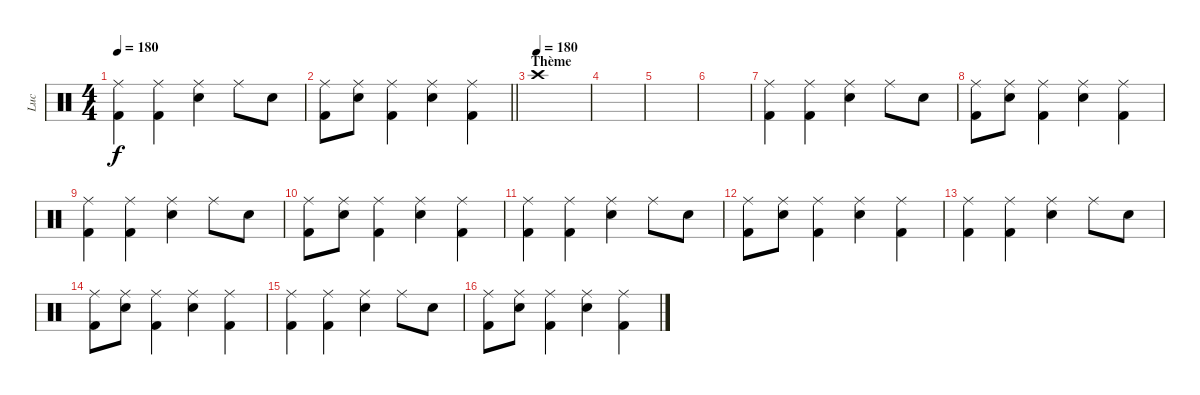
\track ("Luc" "Luc") {instrument percussion}
\staff {score}
\articulation defaults
\ts (4 4)
\tempo 180
\clef neutral
\ks c
("Ride (middle)" "Kick (hit) 2").4{dy f} ("Ride (middle)" "Kick (hit) 2").4 ("Ride (middle)" "Snare (hit) 2").4 "Ride (middle)".8 "Snare (hit) 2".8 |
\barLineRight lightlight
("Ride (middle)" "Kick (hit) 2").8 ("Ride (middle)" "Snare (hit) 2").8 ("Ride (middle)" "Kick (hit) 2").4 ("Ride (middle)" "Snare (hit) 2").4 ("Ride (middle)" "Kick (hit) 2").4 |
\section ("" "Thème")
\tempo (180)
"Crash high (hit)".1 |
|
|
|
("Ride (middle)" "Kick (hit) 2").4 ("Ride (middle)" "Kick (hit) 2").4 ("Ride (middle)" "Snare (hit) 2").4 "Ride (middle)".8 "Snare (hit) 2".8 |
("Ride (middle)" "Kick (hit) 2").8 ("Ride (middle)" "Snare (hit) 2").8 ("Ride (middle)" "Kick (hit) 2").4 ("Ride (middle)" "Snare (hit) 2").4 ("Ride (middle)" "Kick (hit) 2").4 |
("Ride (middle)" "Kick (hit) 2").4 ("Ride (middle)" "Kick (hit) 2").4 ("Ride (middle)" "Snare (hit) 2").4 "Ride (middle)".8 "Snare (hit) 2".8 |
("Ride (middle)" "Kick (hit) 2").8 ("Ride (middle)" "Snare (hit) 2").8 ("Ride (middle)" "Kick (hit) 2").4 ("Ride (middle)" "Snare (hit) 2").4 ("Ride (middle)" "Kick (hit) 2").4 |
("Ride (middle)" "Kick (hit) 2").4 ("Ride (middle)" "Kick (hit) 2").4 ("Ride (middle)" "Snare (hit) 2").4 "Ride (middle)".8 "Snare (hit) 2".8 |
("Ride (middle)" "Kick (hit) 2").8 ("Ride (middle)" "Snare (hit) 2").8 ("Ride (middle)" "Kick (hit) 2").4 ("Ride (middle)" "Snare (hit) 2").4 ("Ride (middle)" "Kick (hit) 2").4 |
("Ride (middle)" "Kick (hit) 2").4 ("Ride (middle)" "Kick (hit) 2").4 ("Ride (middle)" "Snare (hit) 2").4 "Ride (middle)".8 "Snare (hit) 2".8 |
("Ride (middle)" "Kick (hit) 2").8 ("Ride (middle)" "Snare (hit) 2").8 ("Ride (middle)" "Kick (hit) 2").4 ("Ride (middle)" "Snare (hit) 2").4 ("Ride (middle)" "Kick (hit) 2").4 |
("Ride (middle)" "Kick (hit) 2").4 ("Ride (middle)" "Kick (hit) 2").4 ("Ride (middle)" "Snare (hit) 2").4 "Ride (middle)".8 "Snare (hit) 2".8 |
("Ride (middle)" "Kick (hit) 2").8 ("Ride (middle)" "Snare (hit) 2").8 ("Ride (middle)" "Kick (hit) 2").4 ("Ride (middle)" "Snare (hit) 2").4 ("Ride (middle)" "Kick (hit) 2").4
